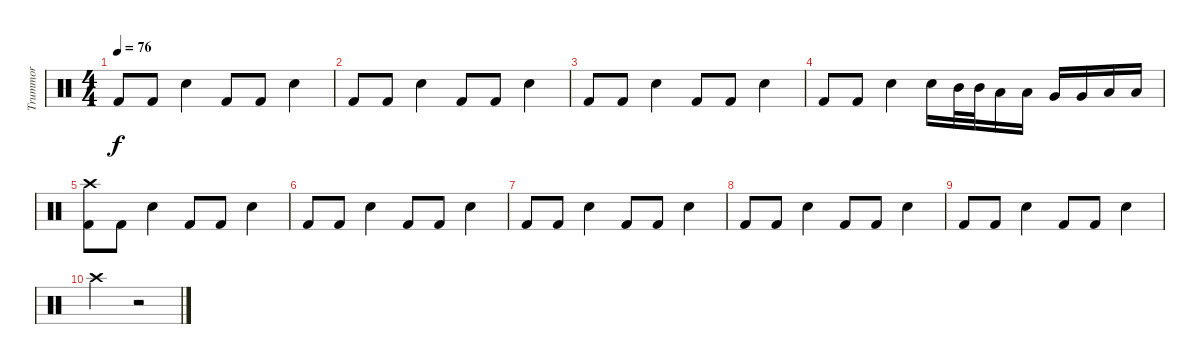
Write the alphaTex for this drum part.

\track ("Trummor" "Trummor") {instrument percussion}
\staff {score}
\articulation defaults
\ts (4 4)
\tempo 76
\clef neutral
\ks c "Kick (hit) 2".8{dy f} "Kick (hit) 2".8 "Snare (hit) 2".4 "Kick (hit) 2".8 "Kick (hit) 2".8 "Snare (hit) 2".4
|
"Kick (hit) 2".8 "Kick (hit) 2".8 "Snare (hit) 2".4 "Kick (hit) 2".8 "Kick (hit) 2".8 "Snare (hit) 2".4 |
"Kick (hit) 2".8 "Kick (hit) 2".8 "Snare (hit) 2".4 "Kick (hit) 2".8 "Kick (hit) 2".8 "Snare (hit) 2".4 |
"Kick (hit) 2".8 "Kick (hit) 2".8 "Snare (hit) 2".4 "Snare (hit) 2".16 "Mid Tom (hit)".32 "Mid Tom (hit)".32 "Low Tom (hit)".16 "Low Tom (hit)".16 "Very Low Tom (hit)".16 "Very Low Tom (hit)".16 "Low Floor Tom (hit)".16 "Low Floor Tom (hit)".16 |
("Crash high (hit)" "Kick (hit) 2").8 "Kick (hit) 2".8 "Snare (hit) 2".4 "Kick (hit) 2".8 "Kick (hit) 2".8 "Snare (hit) 2".4 |
"Kick (hit) 2".8 "Kick (hit) 2".8 "Snare (hit) 2".4 "Kick (hit) 2".8 "Kick (hit) 2".8 "Snare (hit) 2".4 |
"Kick (hit) 2".8 "Kick (hit) 2".8 "Snare (hit) 2".4 "Kick (hit) 2".8 "Kick (hit) 2".8 "Snare (hit) 2".4 |
"Kick (hit) 2".8 "Kick (hit) 2".8 "Snare (hit) 2".4 "Kick (hit) 2".8 "Kick (hit) 2".8 "Snare (hit) 2".4 |
"Kick (hit) 2".8 "Kick (hit) 2".8 "Snare (hit) 2".4 "Kick (hit) 2".8 "Kick (hit) 2".8 "Snare (hit) 2".4 |
"Crash high (hit)".2 r.2
